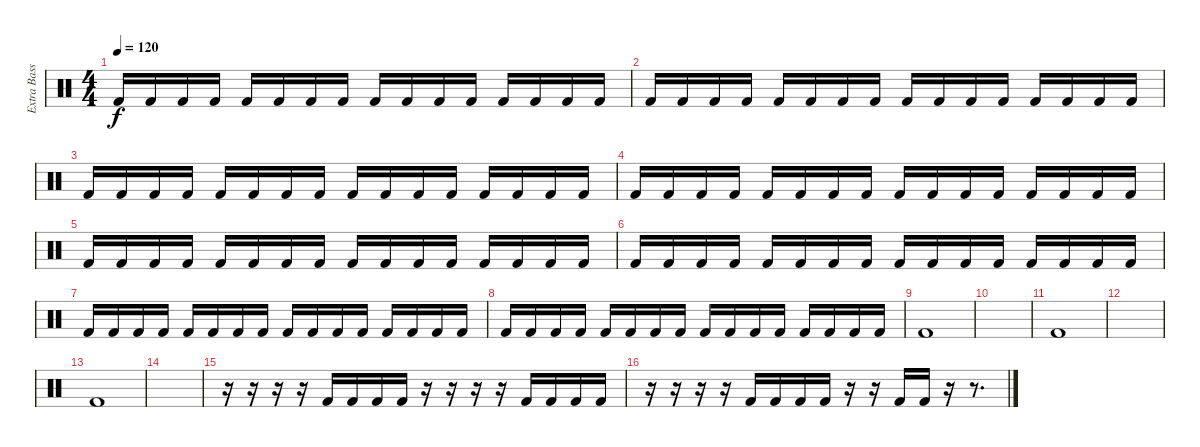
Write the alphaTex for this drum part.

\track ("Extra Bass Drum" "Extra Bass") {instrument percussion}
\staff {score}
\articulation defaults
\ts (4 4)
\tempo 120
\clef neutral
\ks c "Kick (hit) 2".16{dy f} "Kick (hit) 2".16 "Kick (hit) 2".16 "Kick (hit) 2".16 "Kick (hit) 2".16 "Kick (hit) 2".16 "Kick (hit) 2".16 "Kick (hit) 2".16 "Kick (hit) 2".16 "Kick (hit) 2".16 "Kick (hit) 2".16 "Kick (hit) 2".16 "Kick (hit) 2".16 "Kick (hit) 2".16 "Kick (hit) 2".16 "Kick (hit) 2".16
|
"Kick (hit) 2".16 "Kick (hit) 2".16 "Kick (hit) 2".16 "Kick (hit) 2".16 "Kick (hit) 2".16 "Kick (hit) 2".16 "Kick (hit) 2".16 "Kick (hit) 2".16 "Kick (hit) 2".16 "Kick (hit) 2".16 "Kick (hit) 2".16 "Kick (hit) 2".16 "Kick (hit) 2".16 "Kick (hit) 2".16 "Kick (hit) 2".16 "Kick (hit) 2".16 |
"Kick (hit) 2".16 "Kick (hit) 2".16 "Kick (hit) 2".16 "Kick (hit) 2".16 "Kick (hit) 2".16 "Kick (hit) 2".16 "Kick (hit) 2".16 "Kick (hit) 2".16 "Kick (hit) 2".16 "Kick (hit) 2".16 "Kick (hit) 2".16 "Kick (hit) 2".16 "Kick (hit) 2".16 "Kick (hit) 2".16 "Kick (hit) 2".16 "Kick (hit) 2".16 |
"Kick (hit) 2".16 "Kick (hit) 2".16 "Kick (hit) 2".16 "Kick (hit) 2".16 "Kick (hit) 2".16 "Kick (hit) 2".16 "Kick (hit) 2".16 "Kick (hit) 2".16 "Kick (hit) 2".16 "Kick (hit) 2".16 "Kick (hit) 2".16 "Kick (hit) 2".16 "Kick (hit) 2".16 "Kick (hit) 2".16 "Kick (hit) 2".16 "Kick (hit) 2".16 |
"Kick (hit) 2".16 "Kick (hit) 2".16 "Kick (hit) 2".16 "Kick (hit) 2".16 "Kick (hit) 2".16 "Kick (hit) 2".16 "Kick (hit) 2".16 "Kick (hit) 2".16 "Kick (hit) 2".16 "Kick (hit) 2".16 "Kick (hit) 2".16 "Kick (hit) 2".16 "Kick (hit) 2".16 "Kick (hit) 2".16 "Kick (hit) 2".16 "Kick (hit) 2".16 |
"Kick (hit) 2".16 "Kick (hit) 2".16 "Kick (hit) 2".16 "Kick (hit) 2".16 "Kick (hit) 2".16 "Kick (hit) 2".16 "Kick (hit) 2".16 "Kick (hit) 2".16 "Kick (hit) 2".16 "Kick (hit) 2".16 "Kick (hit) 2".16 "Kick (hit) 2".16 "Kick (hit) 2".16 "Kick (hit) 2".16 "Kick (hit) 2".16 "Kick (hit) 2".16 |
"Kick (hit) 2".16 "Kick (hit) 2".16 "Kick (hit) 2".16 "Kick (hit) 2".16 "Kick (hit) 2".16 "Kick (hit) 2".16 "Kick (hit) 2".16 "Kick (hit) 2".16 "Kick (hit) 2".16 "Kick (hit) 2".16 "Kick (hit) 2".16 "Kick (hit) 2".16 "Kick (hit) 2".16 "Kick (hit) 2".16 "Kick (hit) 2".16 "Kick (hit) 2".16 |
"Kick (hit) 2".16 "Kick (hit) 2".16 "Kick (hit) 2".16 "Kick (hit) 2".16 "Kick (hit) 2".16 "Kick (hit) 2".16 "Kick (hit) 2".16 "Kick (hit) 2".16 "Kick (hit) 2".16 "Kick (hit) 2".16 "Kick (hit) 2".16 "Kick (hit) 2".16 "Kick (hit) 2".16 "Kick (hit) 2".16 "Kick (hit) 2".16 "Kick (hit) 2".16 |
"Kick (hit) 2".1 |
|
"Kick (hit) 2".1 |
|
"Kick (hit) 2".1 |
|
r.16 r.16 r.16 r.16 "Kick (hit) 2".16 "Kick (hit) 2".16 "Kick (hit) 2".16 "Kick (hit) 2".16 r.16 r.16 r.16 r.16 "Kick (hit) 2".16 "Kick (hit) 2".16 "Kick (hit) 2".16 "Kick (hit) 2".16 |
r.16 r.16 r.16 r.16 "Kick (hit) 2".16 "Kick (hit) 2".16 "Kick (hit) 2".16 "Kick (hit) 2".16 r.16 r.16 "Kick (hit) 2".16 "Kick (hit) 2".16 r.16 r.8{d}
